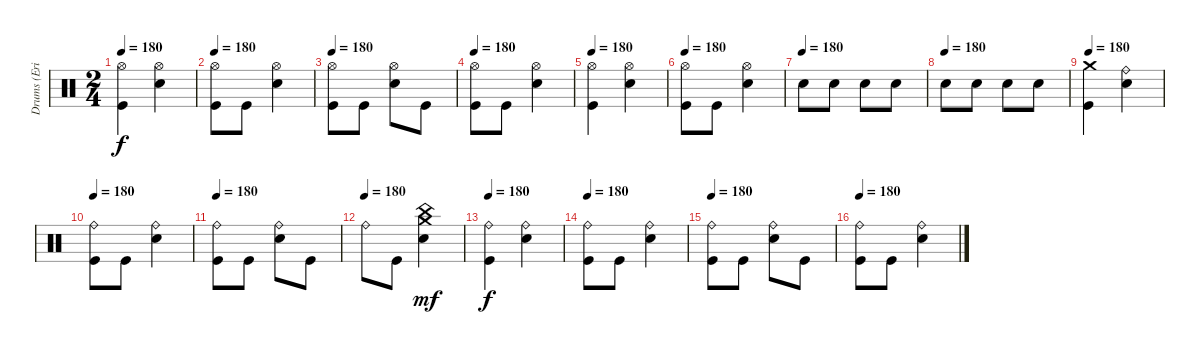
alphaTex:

\track ("Drums (Eric Singer)" "Drums (Eri") {instrument percussion}
\staff {score}
\articulation defaults
\ts (2 4)
\tempo 180
\clef neutral
\ks c
("Hi-Hat (open)" "Kick (hit)").4{dy f} ("Hi-Hat (open)" "Electric Snare (hit)").4 |
\tempo 180
("Hi-Hat (open)" "Kick (hit)").8 "Kick (hit)".8 ("Hi-Hat (open)" "Electric Snare (hit)").4 |
\tempo 180
("Hi-Hat (open)" "Kick (hit)").8 "Kick (hit)".8 ("Hi-Hat (open)" "Electric Snare (hit)").8 "Kick (hit)".8 |
\tempo 180
("Hi-Hat (open)" "Kick (hit)").8 "Kick (hit)".8 ("Hi-Hat (open)" "Electric Snare (hit)").4 |
\tempo 180
("Hi-Hat (open)" "Kick (hit)").4 ("Hi-Hat (open)" "Electric Snare (hit)").4 |
\tempo 180
("Hi-Hat (open)" "Kick (hit)").8 "Kick (hit)".8 ("Hi-Hat (open)" "Electric Snare (hit)").4 |
\tempo (180)
"Electric Snare (hit)".8 "Electric Snare (hit)".8 "Electric Snare (hit)".8 "Electric Snare (hit)".8 |
\tempo (180)
"Electric Snare (hit)".8 "Electric Snare (hit)".8 "Electric Snare (hit)".8 "Electric Snare (hit)".8 |
\tempo 180
("Crash medium (hit)" "Kick (hit)").4 ("Ride (bell)" "Electric Snare (hit)").4 |
\tempo 180
("Ride (bell)" "Kick (hit)").8 "Kick (hit)".8 ("Ride (bell)" "Electric Snare (hit)").4 |
\tempo 180
("Ride (bell)" "Kick (hit)").8 "Kick (hit)".8 ("Ride (bell)" "Electric Snare (hit)").8 "Kick (hit)".8 |
\tempo (180)
"Ride (bell)".8 "Kick (hit)".8 ("China (hit)" "Crash medium (hit)" "Electric Snare (hit)").4{dy mf} |
\tempo 180
("Ride (bell)" "Kick (hit)").4{dy f} ("Ride (bell)" "Electric Snare (hit)").4 |
\tempo 180
("Ride (bell)" "Kick (hit)").8 "Kick (hit)".8 ("Ride (bell)" "Electric Snare (hit)").4 |
\tempo 180
("Ride (bell)" "Kick (hit)").8 "Kick (hit)".8 ("Ride (bell)" "Electric Snare (hit)").8 "Kick (hit)".8 |
\tempo 180
("Ride (bell)" "Kick (hit)").8 "Kick (hit)".8 ("Ride (bell)" "Electric Snare (hit)").4
